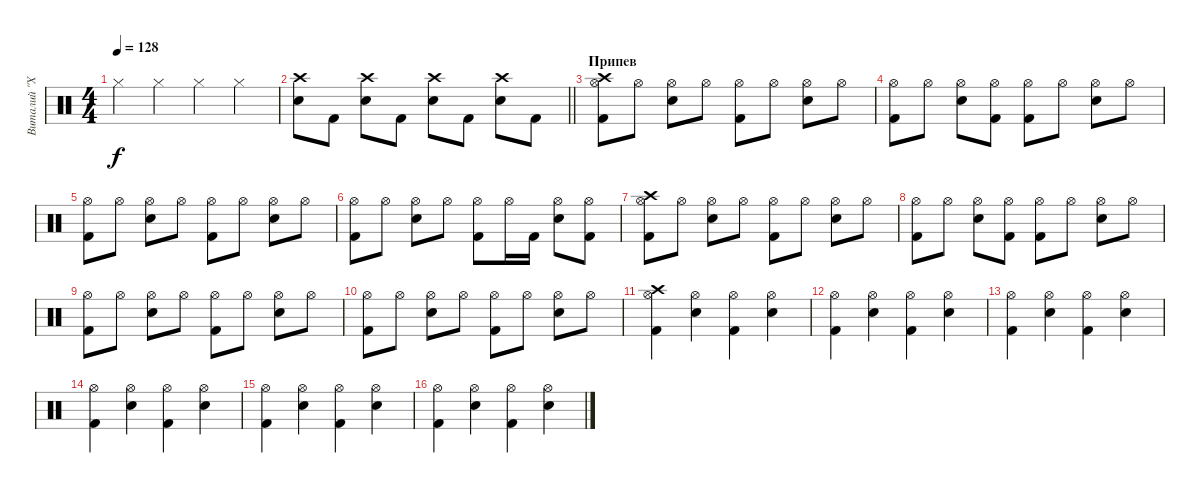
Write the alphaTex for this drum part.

\track ("Виталий \"Хамер\" Лядов" "Виталий \"Х") {instrument percussion}
\staff {score}
\articulation defaults
\ts (4 4)
\tempo 128
\clef neutral
\ks c "Hi-Hat (closed)".4{dy f} "Hi-Hat (closed)".4 "Hi-Hat (closed)".4 "Hi-Hat (closed)".4
|
\barLineRight lightlight
("Electric Snare (hit)" "Crash high (hit)").8 "Kick (hit) 2".8 ("Electric Snare (hit)" "Crash high (hit)").8 "Kick (hit) 2".8 ("Electric Snare (hit)" "Crash high (hit)").8 "Kick (hit) 2".8 ("Electric Snare (hit)" "Crash high (hit)").8 "Kick (hit) 2".8 |
\section ("" "Припев")
("Kick (hit) 2" "Hi-Hat (open)" "Crash high (hit)").8 "Hi-Hat (open)".8 ("Electric Snare (hit)" "Hi-Hat (open)").8 "Hi-Hat (open)".8 ("Kick (hit) 2" "Hi-Hat (open)").8 "Hi-Hat (open)".8 ("Electric Snare (hit)" "Hi-Hat (open)").8 "Hi-Hat (open)".8 |
("Kick (hit) 2" "Hi-Hat (open)").8 "Hi-Hat (open)".8 ("Electric Snare (hit)" "Hi-Hat (open)").8 ("Kick (hit) 2" "Hi-Hat (open)").8 ("Kick (hit) 2" "Hi-Hat (open)").8 "Hi-Hat (open)".8 ("Electric Snare (hit)" "Hi-Hat (open)").8 "Hi-Hat (open)".8 |
("Kick (hit) 2" "Hi-Hat (open)").8 "Hi-Hat (open)".8 ("Electric Snare (hit)" "Hi-Hat (open)").8 "Hi-Hat (open)".8 ("Kick (hit) 2" "Hi-Hat (open)").8 "Hi-Hat (open)".8 ("Electric Snare (hit)" "Hi-Hat (open)").8 "Hi-Hat (open)".8 |
("Kick (hit) 2" "Hi-Hat (open)").8 "Hi-Hat (open)".8 ("Electric Snare (hit)" "Hi-Hat (open)").8 "Hi-Hat (open)".8 ("Kick (hit) 2" "Hi-Hat (open)").8 "Hi-Hat (open)".16 "Kick (hit) 2".16 ("Electric Snare (hit)" "Hi-Hat (open)").8 ("Kick (hit) 2" "Hi-Hat (open)").8 |
("Kick (hit) 2" "Hi-Hat (open)" "Crash high (hit)").8 "Hi-Hat (open)".8 ("Electric Snare (hit)" "Hi-Hat (open)").8 "Hi-Hat (open)".8 ("Kick (hit) 2" "Hi-Hat (open)").8 "Hi-Hat (open)".8 ("Electric Snare (hit)" "Hi-Hat (open)").8 "Hi-Hat (open)".8 |
("Kick (hit) 2" "Hi-Hat (open)").8 "Hi-Hat (open)".8 ("Electric Snare (hit)" "Hi-Hat (open)").8 ("Kick (hit) 2" "Hi-Hat (open)").8 ("Kick (hit) 2" "Hi-Hat (open)").8 "Hi-Hat (open)".8 ("Electric Snare (hit)" "Hi-Hat (open)").8 "Hi-Hat (open)".8 |
("Kick (hit) 2" "Hi-Hat (open)").8 "Hi-Hat (open)".8 ("Electric Snare (hit)" "Hi-Hat (open)").8 "Hi-Hat (open)".8 ("Kick (hit) 2" "Hi-Hat (open)").8 "Hi-Hat (open)".8 ("Electric Snare (hit)" "Hi-Hat (open)").8 "Hi-Hat (open)".8 |
("Kick (hit) 2" "Hi-Hat (open)").8 "Hi-Hat (open)".8 ("Electric Snare (hit)" "Hi-Hat (open)").8 "Hi-Hat (open)".8 ("Kick (hit) 2" "Hi-Hat (open)").8 "Hi-Hat (open)".8 ("Electric Snare (hit)" "Hi-Hat (open)").8 "Hi-Hat (open)".8 |
("Kick (hit) 2" "Hi-Hat (open)" "Crash high (hit)").4 ("Electric Snare (hit)" "Hi-Hat (open)").4 ("Kick (hit) 2" "Hi-Hat (open)").4 ("Electric Snare (hit)" "Hi-Hat (open)").4 |
("Kick (hit) 2" "Hi-Hat (open)").4 ("Electric Snare (hit)" "Hi-Hat (open)").4 ("Kick (hit) 2" "Hi-Hat (open)").4 ("Electric Snare (hit)" "Hi-Hat (open)").4 |
("Kick (hit) 2" "Hi-Hat (open)").4 ("Electric Snare (hit)" "Hi-Hat (open)").4 ("Kick (hit) 2" "Hi-Hat (open)").4 ("Electric Snare (hit)" "Hi-Hat (open)").4 |
("Kick (hit) 2" "Hi-Hat (open)").4 ("Electric Snare (hit)" "Hi-Hat (open)").4 ("Kick (hit) 2" "Hi-Hat (open)").4 ("Electric Snare (hit)" "Hi-Hat (open)").4 |
("Kick (hit) 2" "Hi-Hat (open)").4 ("Electric Snare (hit)" "Hi-Hat (open)").4 ("Kick (hit) 2" "Hi-Hat (open)").4 ("Electric Snare (hit)" "Hi-Hat (open)").4 |
("Kick (hit) 2" "Hi-Hat (open)").4 ("Electric Snare (hit)" "Hi-Hat (open)").4 ("Kick (hit) 2" "Hi-Hat (open)").4 ("Electric Snare (hit)" "Hi-Hat (open)").4
